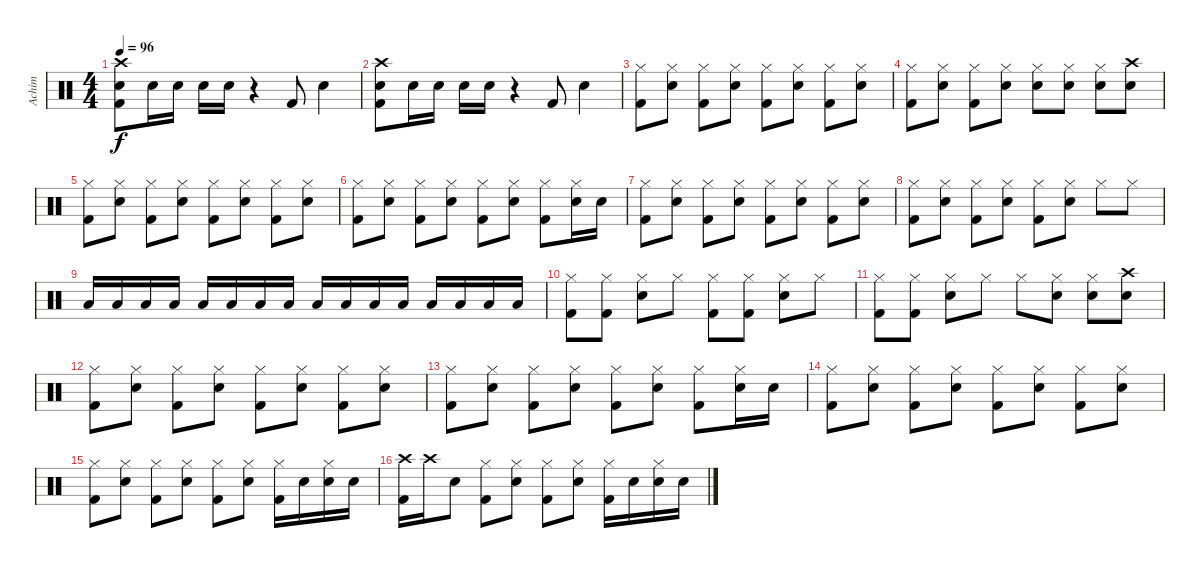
\track ("Achim" "Achim") {instrument percussion}
\staff {score}
\articulation defaults
\ts (4 4)
\tempo 96
\clef neutral
\ks c
("Crash high (hit)" "Snare (hit) 2" "Kick (hit) 2").8{dy f} "Snare (hit) 2".16 "Snare (hit) 2".16 "Snare (hit) 2".16 "Snare (hit) 2".16 r.4 "Kick (hit) 2".8 "Snare (hit) 2".4 |
("Crash high (hit)" "Snare (hit) 2" "Kick (hit) 2").8 "Snare (hit) 2".16 "Snare (hit) 2".16 "Snare (hit) 2".16 "Snare (hit) 2".16 r.4 "Kick (hit) 2".8 "Snare (hit) 2".4 |
("Hi-Hat (closed)" "Kick (hit) 2").8 ("Hi-Hat (closed)" "Snare (hit) 2").8 ("Hi-Hat (closed)" "Kick (hit) 2").8 ("Hi-Hat (closed)" "Snare (hit) 2").8 ("Hi-Hat (closed)" "Kick (hit) 2").8 ("Hi-Hat (closed)" "Snare (hit) 2").8 ("Hi-Hat (closed)" "Kick (hit) 2").8 ("Hi-Hat (closed)" "Snare (hit) 2").8 |
("Hi-Hat (closed)" "Kick (hit) 2").8 ("Hi-Hat (closed)" "Snare (hit) 2").8 ("Hi-Hat (closed)" "Kick (hit) 2").8 ("Hi-Hat (closed)" "Snare (hit) 2").8 ("Hi-Hat (closed)" "Snare (hit) 2").8 ("Hi-Hat (closed)" "Snare (hit) 2").8 ("Hi-Hat (closed)" "Snare (hit) 2").8 ("Crash high (hit)" "Snare (hit) 2").8 |
("Hi-Hat (closed)" "Kick (hit) 2").8 ("Hi-Hat (closed)" "Snare (hit) 2").8 ("Hi-Hat (closed)" "Kick (hit) 2").8 ("Hi-Hat (closed)" "Snare (hit) 2").8 ("Hi-Hat (closed)" "Kick (hit) 2").8 ("Hi-Hat (closed)" "Snare (hit) 2").8 ("Hi-Hat (closed)" "Kick (hit) 2").8 ("Hi-Hat (closed)" "Snare (hit) 2").8 |
("Hi-Hat (closed)" "Kick (hit) 2").8 ("Hi-Hat (closed)" "Snare (hit) 2").8 ("Hi-Hat (closed)" "Kick (hit) 2").8 ("Hi-Hat (closed)" "Snare (hit) 2").8 ("Hi-Hat (closed)" "Kick (hit) 2").8 ("Hi-Hat (closed)" "Snare (hit) 2").8 ("Hi-Hat (closed)" "Kick (hit) 2").8 ("Hi-Hat (closed)" "Snare (hit) 2").16 "Snare (hit) 2".16 |
("Hi-Hat (closed)" "Kick (hit) 2").8 ("Hi-Hat (closed)" "Snare (hit) 2").8 ("Hi-Hat (closed)" "Kick (hit) 2").8 ("Hi-Hat (closed)" "Snare (hit) 2").8 ("Hi-Hat (closed)" "Kick (hit) 2").8 ("Hi-Hat (closed)" "Snare (hit) 2").8 ("Hi-Hat (closed)" "Kick (hit) 2").8 ("Hi-Hat (closed)" "Snare (hit) 2").8 |
("Hi-Hat (closed)" "Kick (hit) 2").8 ("Hi-Hat (closed)" "Snare (hit) 2").8 ("Hi-Hat (closed)" "Kick (hit) 2").8 ("Hi-Hat (closed)" "Snare (hit) 2").8 ("Hi-Hat (closed)" "Kick (hit) 2").8 ("Hi-Hat (closed)" "Snare (hit) 2").8 "Hi-Hat (closed)".8 "Hi-Hat (closed)".8 |
"Low Tom (hit)".16 "Low Tom (hit)".16 "Low Tom (hit)".16 "Low Tom (hit)".16 "Low Tom (hit)".16 "Low Tom (hit)".16 "Low Tom (hit)".16 "Low Tom (hit)".16 "Low Tom (hit)".16 "Low Tom (hit)".16 "Low Tom (hit)".16 "Low Tom (hit)".16 "Low Tom (hit)".16 "Low Tom (hit)".16 "Low Tom (hit)".16 "Low Tom (hit)".16 |
("Hi-Hat (closed)" "Kick (hit) 2").8 ("Hi-Hat (closed)" "Kick (hit) 2").8 ("Hi-Hat (closed)" "Snare (hit) 2").8 "Hi-Hat (closed)".8 ("Hi-Hat (closed)" "Kick (hit) 2").8 ("Hi-Hat (closed)" "Kick (hit) 2").8 ("Hi-Hat (closed)" "Snare (hit) 2").8 "Hi-Hat (closed)".8 |
("Hi-Hat (closed)" "Kick (hit) 2").8 ("Hi-Hat (closed)" "Kick (hit) 2").8 ("Hi-Hat (closed)" "Snare (hit) 2").8 "Hi-Hat (closed)".8 "Hi-Hat (closed)".8 ("Hi-Hat (closed)" "Snare (hit) 2").8 ("Hi-Hat (closed)" "Snare (hit) 2").8 ("Crash high (hit)" "Snare (hit) 2").8 |
("Hi-Hat (closed)" "Kick (hit) 2").8 ("Hi-Hat (closed)" "Snare (hit) 2").8 ("Hi-Hat (closed)" "Kick (hit) 2").8 ("Hi-Hat (closed)" "Snare (hit) 2").8 ("Hi-Hat (closed)" "Kick (hit) 2").8 ("Hi-Hat (closed)" "Snare (hit) 2").8 ("Hi-Hat (closed)" "Kick (hit) 2").8 ("Hi-Hat (closed)" "Snare (hit) 2").8 |
("Hi-Hat (closed)" "Kick (hit) 2").8 ("Hi-Hat (closed)" "Snare (hit) 2").8 ("Hi-Hat (closed)" "Kick (hit) 2").8 ("Hi-Hat (closed)" "Snare (hit) 2").8 ("Hi-Hat (closed)" "Kick (hit) 2").8 ("Hi-Hat (closed)" "Snare (hit) 2").8 ("Hi-Hat (closed)" "Kick (hit) 2").8 ("Hi-Hat (closed)" "Snare (hit) 2").16 "Snare (hit) 2".16 |
("Hi-Hat (closed)" "Kick (hit) 2").8 ("Hi-Hat (closed)" "Snare (hit) 2").8 ("Hi-Hat (closed)" "Kick (hit) 2").8 ("Hi-Hat (closed)" "Snare (hit) 2").8 ("Hi-Hat (closed)" "Kick (hit) 2").8 ("Hi-Hat (closed)" "Snare (hit) 2").8 ("Hi-Hat (closed)" "Kick (hit) 2").8 ("Hi-Hat (closed)" "Snare (hit) 2").8 |
("Hi-Hat (closed)" "Kick (hit) 2").8 ("Hi-Hat (closed)" "Snare (hit) 2").8 ("Hi-Hat (closed)" "Kick (hit) 2").8 ("Hi-Hat (closed)" "Snare (hit) 2").8 ("Hi-Hat (closed)" "Kick (hit) 2").8 ("Hi-Hat (closed)" "Snare (hit) 2").8 ("Hi-Hat (closed)" "Kick (hit) 2").16 "Snare (hit) 2".16 ("Hi-Hat (closed)" "Snare (hit) 2").16 "Snare (hit) 2".16 |
("Crash high (hit)" "Kick (hit) 2").16 "Crash high (hit)".16 "Snare (hit) 2".8 ("Hi-Hat (closed)" "Kick (hit) 2").8 ("Hi-Hat (closed)" "Snare (hit) 2").8 ("Hi-Hat (closed)" "Kick (hit) 2").8 ("Hi-Hat (closed)" "Snare (hit) 2").8 ("Hi-Hat (closed)" "Kick (hit) 2").16 "Snare (hit) 2".16 ("Hi-Hat (closed)" "Snare (hit) 2").16 "Snare (hit) 2".16
